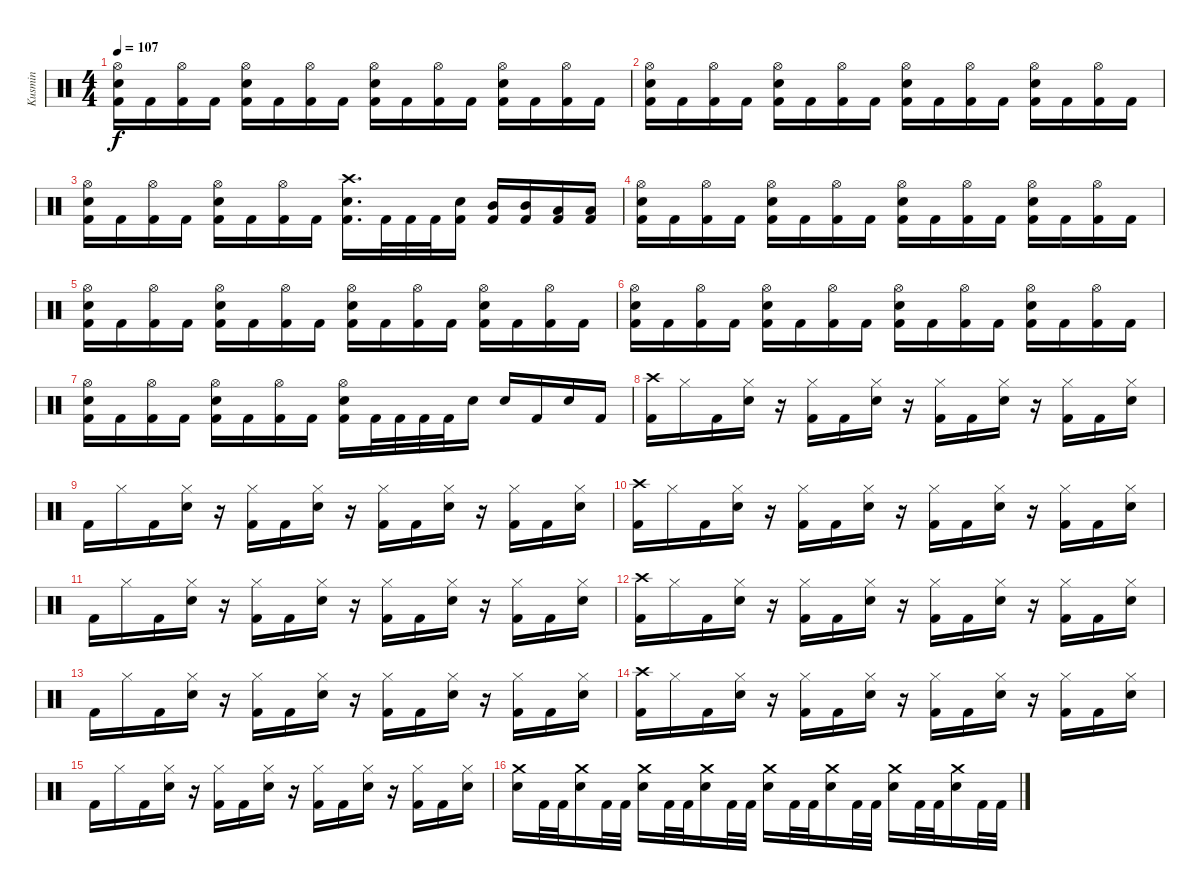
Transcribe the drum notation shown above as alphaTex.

\track ("Kusmin" "Kusmin") {instrument percussion}
\staff {score}
\articulation defaults
\ts (4 4)
\tempo 107
\clef neutral
\ks c
("Hi-Hat (open)" "Snare (hit) 2" "Kick (hit) 2").16{dy f} "Kick (hit) 2".16 ("Hi-Hat (open)" "Kick (hit) 2").16 "Kick (hit) 2".16 ("Hi-Hat (open)" "Snare (hit) 2" "Kick (hit) 2").16 "Kick (hit) 2".16 ("Hi-Hat (open)" "Kick (hit) 2").16 "Kick (hit) 2".16 ("Hi-Hat (open)" "Snare (hit) 2" "Kick (hit) 2").16 "Kick (hit) 2".16 ("Hi-Hat (open)" "Kick (hit) 2").16 "Kick (hit) 2".16 ("Hi-Hat (open)" "Snare (hit) 2" "Kick (hit) 2").16 "Kick (hit) 2".16 ("Hi-Hat (open)" "Kick (hit) 2").16 "Kick (hit) 2".16 |
("Hi-Hat (open)" "Snare (hit) 2" "Kick (hit) 2").16 "Kick (hit) 2".16 ("Hi-Hat (open)" "Kick (hit) 2").16 "Kick (hit) 2".16 ("Hi-Hat (open)" "Snare (hit) 2" "Kick (hit) 2").16 "Kick (hit) 2".16 ("Hi-Hat (open)" "Kick (hit) 2").16 "Kick (hit) 2".16 ("Hi-Hat (open)" "Snare (hit) 2" "Kick (hit) 2").16 "Kick (hit) 2".16 ("Hi-Hat (open)" "Kick (hit) 2").16 "Kick (hit) 2".16 ("Hi-Hat (open)" "Snare (hit) 2" "Kick (hit) 2").16 "Kick (hit) 2".16 ("Hi-Hat (open)" "Kick (hit) 2").16 "Kick (hit) 2".16 |
("Hi-Hat (open)" "Snare (hit) 2" "Kick (hit) 2").16 "Kick (hit) 2".16 ("Hi-Hat (open)" "Kick (hit) 2").16 "Kick (hit) 2".16 ("Hi-Hat (open)" "Snare (hit) 2" "Kick (hit) 2").16 "Kick (hit) 2".16 ("Hi-Hat (open)" "Kick (hit) 2").16 "Kick (hit) 2".16 ("Crash high (hit)" "Snare (hit) 2" "Kick (hit) 2").16{d} "Kick (hit) 2".32 "Kick (hit) 2".32 "Kick (hit) 2".32 ("Snare (hit) 2" "Kick (hit) 2").16 ("Mid Tom (hit)" "Kick (hit) 2").16 ("Mid Tom (hit)" "Kick (hit) 2").16 ("Low Tom (hit)" "Kick (hit) 2").16 ("Low Tom (hit)" "Kick (hit) 2").16 |
("Hi-Hat (open)" "Snare (hit) 2" "Kick (hit) 2").16 "Kick (hit) 2".16 ("Hi-Hat (open)" "Kick (hit) 2").16 "Kick (hit) 2".16 ("Hi-Hat (open)" "Snare (hit) 2" "Kick (hit) 2").16 "Kick (hit) 2".16 ("Hi-Hat (open)" "Kick (hit) 2").16 "Kick (hit) 2".16 ("Hi-Hat (open)" "Snare (hit) 2" "Kick (hit) 2").16 "Kick (hit) 2".16 ("Hi-Hat (open)" "Kick (hit) 2").16 "Kick (hit) 2".16 ("Hi-Hat (open)" "Snare (hit) 2" "Kick (hit) 2").16 "Kick (hit) 2".16 ("Hi-Hat (open)" "Kick (hit) 2").16 "Kick (hit) 2".16 |
("Hi-Hat (open)" "Snare (hit) 2" "Kick (hit) 2").16 "Kick (hit) 2".16 ("Hi-Hat (open)" "Kick (hit) 2").16 "Kick (hit) 2".16 ("Hi-Hat (open)" "Snare (hit) 2" "Kick (hit) 2").16 "Kick (hit) 2".16 ("Hi-Hat (open)" "Kick (hit) 2").16 "Kick (hit) 2".16 ("Hi-Hat (open)" "Snare (hit) 2" "Kick (hit) 2").16 "Kick (hit) 2".16 ("Hi-Hat (open)" "Kick (hit) 2").16 "Kick (hit) 2".16 ("Hi-Hat (open)" "Snare (hit) 2" "Kick (hit) 2").16 "Kick (hit) 2".16 ("Hi-Hat (open)" "Kick (hit) 2").16 "Kick (hit) 2".16 |
("Hi-Hat (open)" "Snare (hit) 2" "Kick (hit) 2").16 "Kick (hit) 2".16 ("Hi-Hat (open)" "Kick (hit) 2").16 "Kick (hit) 2".16 ("Hi-Hat (open)" "Snare (hit) 2" "Kick (hit) 2").16 "Kick (hit) 2".16 ("Hi-Hat (open)" "Kick (hit) 2").16 "Kick (hit) 2".16 ("Hi-Hat (open)" "Snare (hit) 2" "Kick (hit) 2").16 "Kick (hit) 2".16 ("Hi-Hat (open)" "Kick (hit) 2").16 "Kick (hit) 2".16 ("Hi-Hat (open)" "Snare (hit) 2" "Kick (hit) 2").16 "Kick (hit) 2".16 ("Hi-Hat (open)" "Kick (hit) 2").16 "Kick (hit) 2".16 |
("Hi-Hat (open)" "Snare (hit) 2" "Kick (hit) 2").16 "Kick (hit) 2".16 ("Hi-Hat (open)" "Kick (hit) 2").16 "Kick (hit) 2".16 ("Hi-Hat (open)" "Snare (hit) 2" "Kick (hit) 2").16 "Kick (hit) 2".16 ("Hi-Hat (open)" "Kick (hit) 2").16 "Kick (hit) 2".16 ("Hi-Hat (open)" "Snare (hit) 2" "Kick (hit) 2").16 "Kick (hit) 2".32 "Kick (hit) 2".32 "Kick (hit) 2".32 "Kick (hit) 2".32 "Snare (hit) 2".16 "Snare (hit) 2".16 "Kick (hit) 2".16 "Snare (hit) 2".16 "Kick (hit) 2".16 |
("Crash high (hit)" "Kick (hit) 2").16 "Hi-Hat (closed)".16 "Kick (hit) 2".16 ("Hi-Hat (closed)" "Snare (hit) 2").16 r.16 ("Hi-Hat (closed)" "Kick (hit) 2").16 "Kick (hit) 2".16 ("Hi-Hat (closed)" "Snare (hit) 2").16 r.16 ("Hi-Hat (closed)" "Kick (hit) 2").16 "Kick (hit) 2".16 ("Hi-Hat (closed)" "Snare (hit) 2").16 r.16 ("Hi-Hat (closed)" "Kick (hit) 2").16 "Kick (hit) 2".16 ("Hi-Hat (closed)" "Snare (hit) 2").16 |
"Kick (hit) 2".16 "Hi-Hat (closed)".16 "Kick (hit) 2".16 ("Hi-Hat (closed)" "Snare (hit) 2").16 r.16 ("Hi-Hat (closed)" "Kick (hit) 2").16 "Kick (hit) 2".16 ("Hi-Hat (closed)" "Snare (hit) 2").16 r.16 ("Hi-Hat (closed)" "Kick (hit) 2").16 "Kick (hit) 2".16 ("Hi-Hat (closed)" "Snare (hit) 2").16 r.16 ("Hi-Hat (closed)" "Kick (hit) 2").16 "Kick (hit) 2".16 ("Hi-Hat (closed)" "Snare (hit) 2").16 |
("Crash high (hit)" "Kick (hit) 2").16 "Hi-Hat (closed)".16 "Kick (hit) 2".16 ("Hi-Hat (closed)" "Snare (hit) 2").16 r.16 ("Hi-Hat (closed)" "Kick (hit) 2").16 "Kick (hit) 2".16 ("Hi-Hat (closed)" "Snare (hit) 2").16 r.16 ("Hi-Hat (closed)" "Kick (hit) 2").16 "Kick (hit) 2".16 ("Hi-Hat (closed)" "Snare (hit) 2").16 r.16 ("Hi-Hat (closed)" "Kick (hit) 2").16 "Kick (hit) 2".16 ("Hi-Hat (closed)" "Snare (hit) 2").16 |
"Kick (hit) 2".16 "Hi-Hat (closed)".16 "Kick (hit) 2".16 ("Hi-Hat (closed)" "Snare (hit) 2").16 r.16 ("Hi-Hat (closed)" "Kick (hit) 2").16 "Kick (hit) 2".16 ("Hi-Hat (closed)" "Snare (hit) 2").16 r.16 ("Hi-Hat (closed)" "Kick (hit) 2").16 "Kick (hit) 2".16 ("Hi-Hat (closed)" "Snare (hit) 2").16 r.16 ("Hi-Hat (closed)" "Kick (hit) 2").16 "Kick (hit) 2".16 ("Hi-Hat (closed)" "Snare (hit) 2").16 |
("Crash high (hit)" "Kick (hit) 2").16 "Hi-Hat (closed)".16 "Kick (hit) 2".16 ("Hi-Hat (closed)" "Snare (hit) 2").16 r.16 ("Hi-Hat (closed)" "Kick (hit) 2").16 "Kick (hit) 2".16 ("Hi-Hat (closed)" "Snare (hit) 2").16 r.16 ("Hi-Hat (closed)" "Kick (hit) 2").16 "Kick (hit) 2".16 ("Hi-Hat (closed)" "Snare (hit) 2").16 r.16 ("Hi-Hat (closed)" "Kick (hit) 2").16 "Kick (hit) 2".16 ("Hi-Hat (closed)" "Snare (hit) 2").16 |
"Kick (hit) 2".16 "Hi-Hat (closed)".16 "Kick (hit) 2".16 ("Hi-Hat (closed)" "Snare (hit) 2").16 r.16 ("Hi-Hat (closed)" "Kick (hit) 2").16 "Kick (hit) 2".16 ("Hi-Hat (closed)" "Snare (hit) 2").16 r.16 ("Hi-Hat (closed)" "Kick (hit) 2").16 "Kick (hit) 2".16 ("Hi-Hat (closed)" "Snare (hit) 2").16 r.16 ("Hi-Hat (closed)" "Kick (hit) 2").16 "Kick (hit) 2".16 ("Hi-Hat (closed)" "Snare (hit) 2").16 |
("Crash high (hit)" "Kick (hit) 2").16 "Hi-Hat (closed)".16 "Kick (hit) 2".16 ("Hi-Hat (closed)" "Snare (hit) 2").16 r.16 ("Hi-Hat (closed)" "Kick (hit) 2").16 "Kick (hit) 2".16 ("Hi-Hat (closed)" "Snare (hit) 2").16 r.16 ("Hi-Hat (closed)" "Kick (hit) 2").16 "Kick (hit) 2".16 ("Hi-Hat (closed)" "Snare (hit) 2").16 r.16 ("Hi-Hat (closed)" "Kick (hit) 2").16 "Kick (hit) 2".16 ("Hi-Hat (closed)" "Snare (hit) 2").16 |
"Kick (hit) 2".16 "Hi-Hat (closed)".16 "Kick (hit) 2".16 ("Hi-Hat (closed)" "Snare (hit) 2").16 r.16 ("Hi-Hat (closed)" "Kick (hit) 2").16 "Kick (hit) 2".16 ("Hi-Hat (closed)" "Snare (hit) 2").16 r.16 ("Hi-Hat (closed)" "Kick (hit) 2").16 "Kick (hit) 2".16 ("Hi-Hat (closed)" "Snare (hit) 2").16 r.16 ("Hi-Hat (closed)" "Kick (hit) 2").16 "Kick (hit) 2".16 ("Hi-Hat (closed)" "Snare (hit) 2").16 |
("Crash medium (hit)" "Snare (hit) 2").16 "Kick (hit) 2".32 "Kick (hit) 2".32 ("Crash medium (hit)" "Snare (hit) 2").16 "Kick (hit) 2".32 "Kick (hit) 2".32 ("Crash medium (hit)" "Snare (hit) 2").16 "Kick (hit) 2".32 "Kick (hit) 2".32 ("Crash medium (hit)" "Snare (hit) 2").16 "Kick (hit) 2".32 "Kick (hit) 2".32 ("Crash medium (hit)" "Snare (hit) 2").16 "Kick (hit) 2".32 "Kick (hit) 2".32 ("Crash medium (hit)" "Snare (hit) 2").16 "Kick (hit) 2".32 "Kick (hit) 2".32 ("Crash medium (hit)" "Snare (hit) 2").16 "Kick (hit) 2".32 "Kick (hit) 2".32 ("Crash medium (hit)" "Snare (hit) 2").16 "Kick (hit) 2".32 "Kick (hit) 2".32
